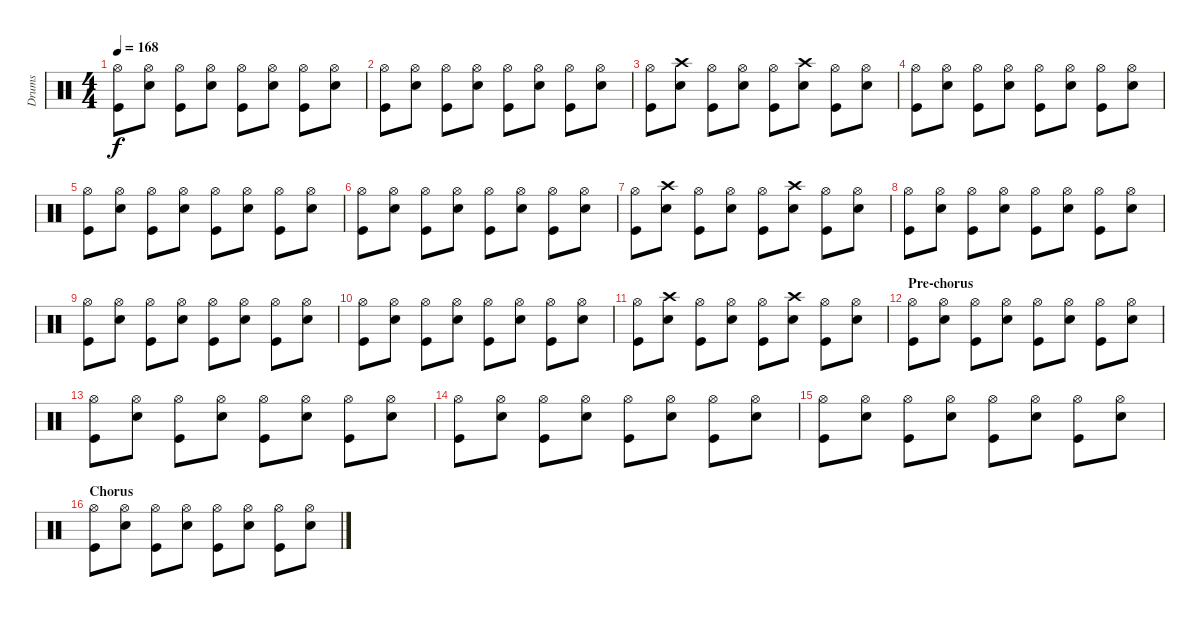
\track ("Drums" "Drums") {instrument percussion}
\staff {score}
\articulation defaults
\ts (4 4)
\tempo 168
\clef neutral
\ks c
("Hi-Hat (open)" "Kick (hit)").8{dy f} ("Hi-Hat (open)" "Snare (hit) 2").8 ("Hi-Hat (open)" "Kick (hit)").8 ("Hi-Hat (open)" "Snare (hit) 2").8 ("Hi-Hat (open)" "Kick (hit)").8 ("Hi-Hat (open)" "Snare (hit) 2").8 ("Hi-Hat (open)" "Kick (hit)").8 ("Hi-Hat (open)" "Snare (hit) 2").8 |
("Hi-Hat (open)" "Kick (hit)").8 ("Hi-Hat (open)" "Snare (hit) 2").8 ("Hi-Hat (open)" "Kick (hit)").8 ("Hi-Hat (open)" "Snare (hit) 2").8 ("Hi-Hat (open)" "Kick (hit)").8 ("Hi-Hat (open)" "Snare (hit) 2").8 ("Hi-Hat (open)" "Kick (hit)").8 ("Hi-Hat (open)" "Snare (hit) 2").8 |
("Hi-Hat (open)" "Kick (hit)").8 ("Crash high (hit)" "Snare (hit) 2").8 ("Hi-Hat (open)" "Kick (hit)").8 ("Hi-Hat (open)" "Snare (hit) 2").8 ("Hi-Hat (open)" "Kick (hit)").8 ("Crash high (hit)" "Snare (hit) 2").8 ("Hi-Hat (open)" "Kick (hit)").8 ("Hi-Hat (open)" "Snare (hit) 2").8 |
("Hi-Hat (open)" "Kick (hit)").8 ("Hi-Hat (open)" "Snare (hit) 2").8 ("Hi-Hat (open)" "Kick (hit)").8 ("Hi-Hat (open)" "Snare (hit) 2").8 ("Hi-Hat (open)" "Kick (hit)").8 ("Hi-Hat (open)" "Snare (hit) 2").8 ("Hi-Hat (open)" "Kick (hit)").8 ("Hi-Hat (open)" "Snare (hit) 2").8 |
("Hi-Hat (open)" "Kick (hit)").8 ("Hi-Hat (open)" "Snare (hit) 2").8 ("Hi-Hat (open)" "Kick (hit)").8 ("Hi-Hat (open)" "Snare (hit) 2").8 ("Hi-Hat (open)" "Kick (hit)").8 ("Hi-Hat (open)" "Snare (hit) 2").8 ("Hi-Hat (open)" "Kick (hit)").8 ("Hi-Hat (open)" "Snare (hit) 2").8 |
("Hi-Hat (open)" "Kick (hit)").8 ("Hi-Hat (open)" "Snare (hit) 2").8 ("Hi-Hat (open)" "Kick (hit)").8 ("Hi-Hat (open)" "Snare (hit) 2").8 ("Hi-Hat (open)" "Kick (hit)").8 ("Hi-Hat (open)" "Snare (hit) 2").8 ("Hi-Hat (open)" "Kick (hit)").8 ("Hi-Hat (open)" "Snare (hit) 2").8 |
("Hi-Hat (open)" "Kick (hit)").8 ("Crash high (hit)" "Snare (hit) 2").8 ("Hi-Hat (open)" "Kick (hit)").8 ("Hi-Hat (open)" "Snare (hit) 2").8 ("Hi-Hat (open)" "Kick (hit)").8 ("Crash high (hit)" "Snare (hit) 2").8 ("Hi-Hat (open)" "Kick (hit)").8 ("Hi-Hat (open)" "Snare (hit) 2").8 |
("Hi-Hat (open)" "Kick (hit)").8 ("Hi-Hat (open)" "Snare (hit) 2").8 ("Hi-Hat (open)" "Kick (hit)").8 ("Hi-Hat (open)" "Snare (hit) 2").8 ("Hi-Hat (open)" "Kick (hit)").8 ("Hi-Hat (open)" "Snare (hit) 2").8 ("Hi-Hat (open)" "Kick (hit)").8 ("Hi-Hat (open)" "Snare (hit) 2").8 |
("Hi-Hat (open)" "Kick (hit)").8 ("Hi-Hat (open)" "Snare (hit) 2").8 ("Hi-Hat (open)" "Kick (hit)").8 ("Hi-Hat (open)" "Snare (hit) 2").8 ("Hi-Hat (open)" "Kick (hit)").8 ("Hi-Hat (open)" "Snare (hit) 2").8 ("Hi-Hat (open)" "Kick (hit)").8 ("Hi-Hat (open)" "Snare (hit) 2").8 |
("Hi-Hat (open)" "Kick (hit)").8 ("Hi-Hat (open)" "Snare (hit) 2").8 ("Hi-Hat (open)" "Kick (hit)").8 ("Hi-Hat (open)" "Snare (hit) 2").8 ("Hi-Hat (open)" "Kick (hit)").8 ("Hi-Hat (open)" "Snare (hit) 2").8 ("Hi-Hat (open)" "Kick (hit)").8 ("Hi-Hat (open)" "Snare (hit) 2").8 |
("Hi-Hat (open)" "Kick (hit)").8 ("Crash high (hit)" "Snare (hit) 2").8 ("Hi-Hat (open)" "Kick (hit)").8 ("Hi-Hat (open)" "Snare (hit) 2").8 ("Hi-Hat (open)" "Kick (hit)").8 ("Crash high (hit)" "Snare (hit) 2").8 ("Hi-Hat (open)" "Kick (hit)").8 ("Hi-Hat (open)" "Snare (hit) 2").8 |
\section ("" "Pre-chorus")
("Hi-Hat (open)" "Kick (hit)").8 ("Hi-Hat (open)" "Snare (hit) 2").8 ("Hi-Hat (open)" "Kick (hit)").8 ("Hi-Hat (open)" "Snare (hit) 2").8 ("Hi-Hat (open)" "Kick (hit)").8 ("Hi-Hat (open)" "Snare (hit) 2").8 ("Hi-Hat (open)" "Kick (hit)").8 ("Hi-Hat (open)" "Snare (hit) 2").8 |
("Hi-Hat (open)" "Kick (hit)").8 ("Hi-Hat (open)" "Snare (hit) 2").8 ("Hi-Hat (open)" "Kick (hit)").8 ("Hi-Hat (open)" "Snare (hit) 2").8 ("Hi-Hat (open)" "Kick (hit)").8 ("Hi-Hat (open)" "Snare (hit) 2").8 ("Hi-Hat (open)" "Kick (hit)").8 ("Hi-Hat (open)" "Snare (hit) 2").8 |
("Hi-Hat (open)" "Kick (hit)").8 ("Hi-Hat (open)" "Snare (hit) 2").8 ("Hi-Hat (open)" "Kick (hit)").8 ("Hi-Hat (open)" "Snare (hit) 2").8 ("Hi-Hat (open)" "Kick (hit)").8 ("Hi-Hat (open)" "Snare (hit) 2").8 ("Hi-Hat (open)" "Kick (hit)").8 ("Hi-Hat (open)" "Snare (hit) 2").8 |
("Hi-Hat (open)" "Kick (hit)").8 ("Hi-Hat (open)" "Snare (hit) 2").8 ("Hi-Hat (open)" "Kick (hit)").8 ("Hi-Hat (open)" "Snare (hit) 2").8 ("Hi-Hat (open)" "Kick (hit)").8 ("Hi-Hat (open)" "Snare (hit) 2").8 ("Hi-Hat (open)" "Kick (hit)").8 ("Hi-Hat (open)" "Snare (hit) 2").8 |
\section ("" "Chorus")
("Hi-Hat (open)" "Kick (hit)").8 ("Hi-Hat (open)" "Snare (hit) 2").8 ("Hi-Hat (open)" "Kick (hit)").8 ("Hi-Hat (open)" "Snare (hit) 2").8 ("Hi-Hat (open)" "Kick (hit)").8 ("Hi-Hat (open)" "Snare (hit) 2").8 ("Hi-Hat (open)" "Kick (hit)").8 ("Hi-Hat (open)" "Snare (hit) 2").8
